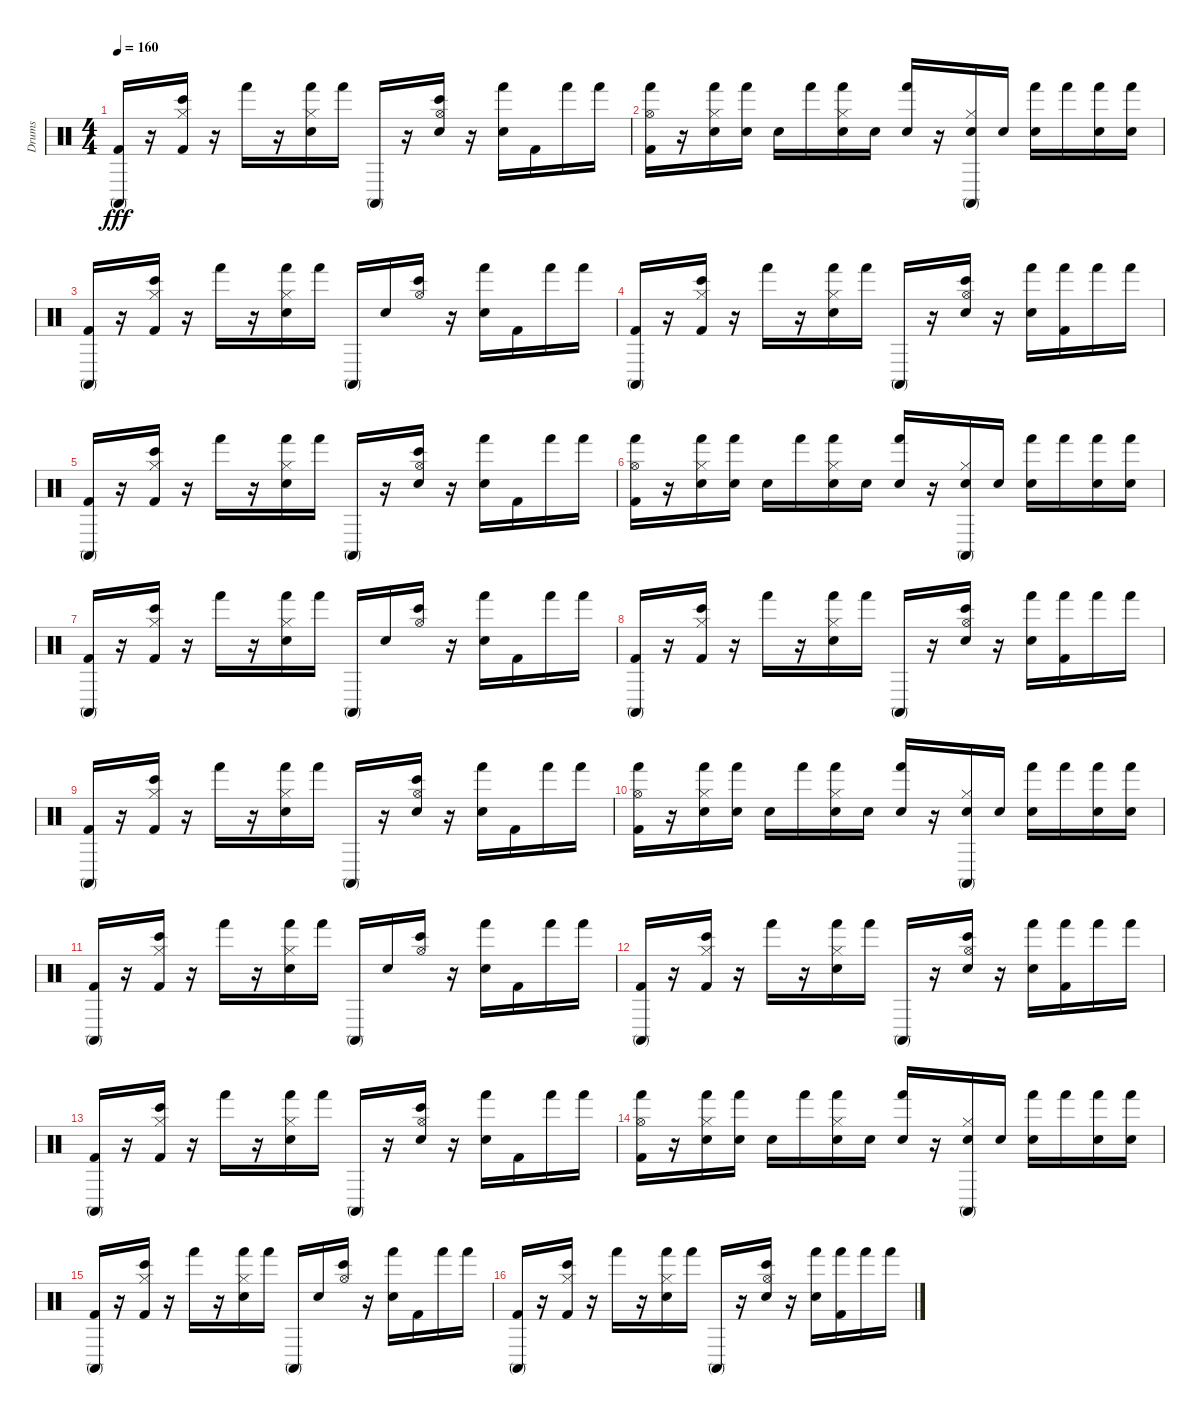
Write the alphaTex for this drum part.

\track ("Drums" "Drums") {instrument percussion}
\staff {score}
\articulation defaults
\ts (4 4)
\tempo 160
\clef neutral
\ks c
("Conga high (mute)" "Kick (hit) 2").16{dy fff} r.16 ("Kick (hit) 2" "Bongo High (hit)" "Hi-Hat (closed)").16 r.16 "Hand (hit)".16 r.16 ("Electric Snare (hit)" "Hand (hit)" "Hi-Hat (closed)").16 "Hand (hit)".16 "Conga high (mute)".16 r.16 ("Hi-Hat (open)" "Bongo High (hit)" "Electric Snare (hit)").16 r.16 ("Hand (hit)" "Electric Snare (hit)").16 "Kick (hit) 2".16 "Hand (hit)".16 "Hand (hit)".16 |
("Hand (hit)" "Hi-Hat (open)" "Kick (hit) 2").16 r.16 ("Electric Snare (hit)" "Hand (hit)" "Hi-Hat (closed)").16 ("Hand (hit)" "Electric Snare (hit)").16 "Electric Snare (hit)".16 "Hand (hit)".16 ("Hand (hit)" "Electric Snare (hit)" "Hi-Hat (closed)").16 "Electric Snare (hit)".16 ("Hand (hit)" "Electric Snare (hit)").16 r.16 ("Conga high (mute)" "Electric Snare (hit)" "Hi-Hat (closed)").16 "Electric Snare (hit)".16 ("Electric Snare (hit)" "Hand (hit)").16 "Hand (hit)".16 ("Electric Snare (hit)" "Hand (hit)").16 ("Electric Snare (hit)" "Hand (hit)").16 |
("Conga high (mute)" "Kick (hit) 2").16 r.16 ("Kick (hit) 2" "Hi-Hat (closed)" "Bongo High (hit)").16 r.16 "Hand (hit)".16 r.16 ("Hand (hit)" "Electric Snare (hit)" "Hi-Hat (closed)").16 "Hand (hit)".16 "Conga high (mute)".16 "Electric Snare (hit)".16 ("Hi-Hat (open)" "Bongo High (hit)").16 r.16 ("Electric Snare (hit)" "Hand (hit)").16 "Kick (hit) 2".16 "Hand (hit)".16 "Hand (hit)".16 |
("Kick (hit) 2" "Conga high (mute)").16 r.16 ("Bongo High (hit)" "Kick (hit) 2" "Hi-Hat (closed)").16 r.16 "Hand (hit)".16 r.16 ("Electric Snare (hit)" "Hi-Hat (closed)" "Hand (hit)").16 "Hand (hit)".16 "Conga high (mute)".16 r.16 ("Electric Snare (hit)" "Bongo High (hit)" "Hi-Hat (open)").16 r.16 ("Hand (hit)" "Electric Snare (hit)").16 ("Kick (hit) 2" "Hand (hit)").16 "Hand (hit)".16 "Hand (hit)".16 |
("Conga high (mute)" "Kick (hit) 2").16 r.16 ("Hi-Hat (closed)" "Bongo High (hit)" "Kick (hit) 2").16 r.16 "Hand (hit)".16 r.16 ("Hi-Hat (closed)" "Electric Snare (hit)" "Hand (hit)").16 "Hand (hit)".16 "Conga high (mute)".16 r.16 ("Electric Snare (hit)" "Bongo High (hit)" "Hi-Hat (open)").16 r.16 ("Electric Snare (hit)" "Hand (hit)").16 "Kick (hit) 2".16 "Hand (hit)".16 "Hand (hit)".16 |
("Hi-Hat (open)" "Kick (hit) 2" "Hand (hit)").16 r.16 ("Electric Snare (hit)" "Hi-Hat (closed)" "Hand (hit)").16 ("Electric Snare (hit)" "Hand (hit)").16 "Electric Snare (hit)".16 "Hand (hit)".16 ("Hi-Hat (closed)" "Hand (hit)" "Electric Snare (hit)").16 "Electric Snare (hit)".16 ("Hand (hit)" "Electric Snare (hit)").16 r.16 ("Electric Snare (hit)" "Hi-Hat (closed)" "Conga high (mute)").16 "Electric Snare (hit)".16 ("Hand (hit)" "Electric Snare (hit)").16 "Hand (hit)".16 ("Electric Snare (hit)" "Hand (hit)").16 ("Hand (hit)" "Electric Snare (hit)").16 |
("Kick (hit) 2" "Conga high (mute)").16 r.16 ("Hi-Hat (closed)" "Bongo High (hit)" "Kick (hit) 2").16 r.16 "Hand (hit)".16 r.16 ("Hi-Hat (closed)" "Hand (hit)" "Electric Snare (hit)").16 "Hand (hit)".16 "Conga high (mute)".16 "Electric Snare (hit)".16 ("Bongo High (hit)" "Hi-Hat (open)").16 r.16 ("Hand (hit)" "Electric Snare (hit)").16 "Kick (hit) 2".16 "Hand (hit)".16 "Hand (hit)".16 |
("Conga high (mute)" "Kick (hit) 2").16 r.16 ("Kick (hit) 2" "Bongo High (hit)" "Hi-Hat (closed)").16 r.16 "Hand (hit)".16 r.16 ("Hi-Hat (closed)" "Hand (hit)" "Electric Snare (hit)").16 "Hand (hit)".16 "Conga high (mute)".16 r.16 ("Hi-Hat (open)" "Electric Snare (hit)" "Bongo High (hit)").16 r.16 ("Hand (hit)" "Electric Snare (hit)").16 ("Hand (hit)" "Kick (hit) 2").16 "Hand (hit)".16 "Hand (hit)".16 |
("Kick (hit) 2" "Conga high (mute)").16 r.16 ("Kick (hit) 2" "Bongo High (hit)" "Hi-Hat (closed)").16 r.16 "Hand (hit)".16 r.16 ("Electric Snare (hit)" "Hi-Hat (closed)" "Hand (hit)").16 "Hand (hit)".16 "Conga high (mute)".16 r.16 ("Hi-Hat (open)" "Electric Snare (hit)" "Bongo High (hit)").16 r.16 ("Electric Snare (hit)" "Hand (hit)").16 "Kick (hit) 2".16 "Hand (hit)".16 "Hand (hit)".16 |
("Hi-Hat (open)" "Kick (hit) 2" "Hand (hit)").16 r.16 ("Hi-Hat (closed)" "Hand (hit)" "Electric Snare (hit)").16 ("Electric Snare (hit)" "Hand (hit)").16 "Electric Snare (hit)".16 "Hand (hit)".16 ("Hi-Hat (closed)" "Hand (hit)" "Electric Snare (hit)").16 "Electric Snare (hit)".16 ("Hand (hit)" "Electric Snare (hit)").16 r.16 ("Electric Snare (hit)" "Hi-Hat (closed)" "Conga high (mute)").16 "Electric Snare (hit)".16 ("Electric Snare (hit)" "Hand (hit)").16 "Hand (hit)".16 ("Hand (hit)" "Electric Snare (hit)").16 ("Electric Snare (hit)" "Hand (hit)").16 |
("Kick (hit) 2" "Conga high (mute)").16 r.16 ("Kick (hit) 2" "Hi-Hat (closed)" "Bongo High (hit)").16 r.16 "Hand (hit)".16 r.16 ("Electric Snare (hit)" "Hi-Hat (closed)" "Hand (hit)").16 "Hand (hit)".16 "Conga high (mute)".16 "Electric Snare (hit)".16 ("Hi-Hat (open)" "Bongo High (hit)").16 r.16 ("Hand (hit)" "Electric Snare (hit)").16 "Kick (hit) 2".16 "Hand (hit)".16 "Hand (hit)".16 |
("Conga high (mute)" "Kick (hit) 2").16 r.16 ("Bongo High (hit)" "Hi-Hat (closed)" "Kick (hit) 2").16 r.16 "Hand (hit)".16 r.16 ("Hi-Hat (closed)" "Hand (hit)" "Electric Snare (hit)").16 "Hand (hit)".16 "Conga high (mute)".16 r.16 ("Electric Snare (hit)" "Bongo High (hit)" "Hi-Hat (open)").16 r.16 ("Electric Snare (hit)" "Hand (hit)").16 ("Hand (hit)" "Kick (hit) 2").16 "Hand (hit)".16 "Hand (hit)".16 |
("Kick (hit) 2" "Conga high (mute)").16 r.16 ("Kick (hit) 2" "Hi-Hat (closed)" "Bongo High (hit)").16 r.16 "Hand (hit)".16 r.16 ("Hi-Hat (closed)" "Electric Snare (hit)" "Hand (hit)").16 "Hand (hit)".16 "Conga high (mute)".16 r.16 ("Hi-Hat (open)" "Bongo High (hit)" "Electric Snare (hit)").16 r.16 ("Hand (hit)" "Electric Snare (hit)").16 "Kick (hit) 2".16 "Hand (hit)".16 "Hand (hit)".16 |
("Hi-Hat (open)" "Kick (hit) 2" "Hand (hit)").16 r.16 ("Hand (hit)" "Hi-Hat (closed)" "Electric Snare (hit)").16 ("Electric Snare (hit)" "Hand (hit)").16 "Electric Snare (hit)".16 "Hand (hit)".16 ("Electric Snare (hit)" "Hi-Hat (closed)" "Hand (hit)").16 "Electric Snare (hit)".16 ("Hand (hit)" "Electric Snare (hit)").16 r.16 ("Conga high (mute)" "Electric Snare (hit)" "Hi-Hat (closed)").16 "Electric Snare (hit)".16 ("Electric Snare (hit)" "Hand (hit)").16 "Hand (hit)".16 ("Hand (hit)" "Electric Snare (hit)").16 ("Electric Snare (hit)" "Hand (hit)").16 |
("Kick (hit) 2" "Conga high (mute)").16 r.16 ("Hi-Hat (closed)" "Kick (hit) 2" "Bongo High (hit)").16 r.16 "Hand (hit)".16 r.16 ("Hi-Hat (closed)" "Hand (hit)" "Electric Snare (hit)").16 "Hand (hit)".16 "Conga high (mute)".16 "Electric Snare (hit)".16 ("Bongo High (hit)" "Hi-Hat (open)").16 r.16 ("Hand (hit)" "Electric Snare (hit)").16 "Kick (hit) 2".16 "Hand (hit)".16 "Hand (hit)".16 |
("Conga high (mute)" "Kick (hit) 2").16 r.16 ("Kick (hit) 2" "Bongo High (hit)" "Hi-Hat (closed)").16 r.16 "Hand (hit)".16 r.16 ("Hand (hit)" "Hi-Hat (closed)" "Electric Snare (hit)").16 "Hand (hit)".16 "Conga high (mute)".16 r.16 ("Bongo High (hit)" "Electric Snare (hit)" "Hi-Hat (open)").16 r.16 ("Hand (hit)" "Electric Snare (hit)").16 ("Hand (hit)" "Kick (hit) 2").16 "Hand (hit)".16 "Hand (hit)".16
